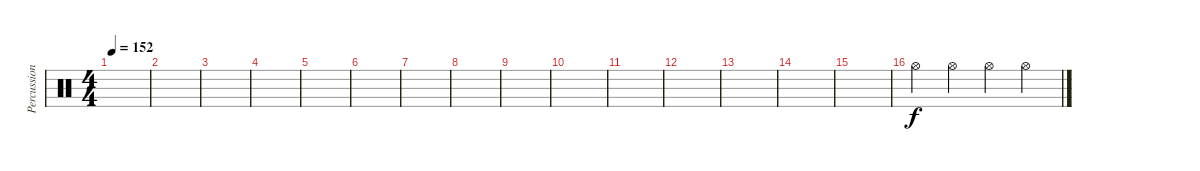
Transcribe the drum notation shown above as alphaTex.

\track ("Percussion" "Percussion") {instrument percussion}
\staff {score}
\articulation defaults
\ts (4 4)
\tempo 152
\clef neutral
\ks c
|
|
|
|
|
|
|
|
|
|
|
|
|
|
|
"Hi-Hat (open)".4 "Hi-Hat (open)".4 "Hi-Hat (open)".4 "Hi-Hat (open)".4
